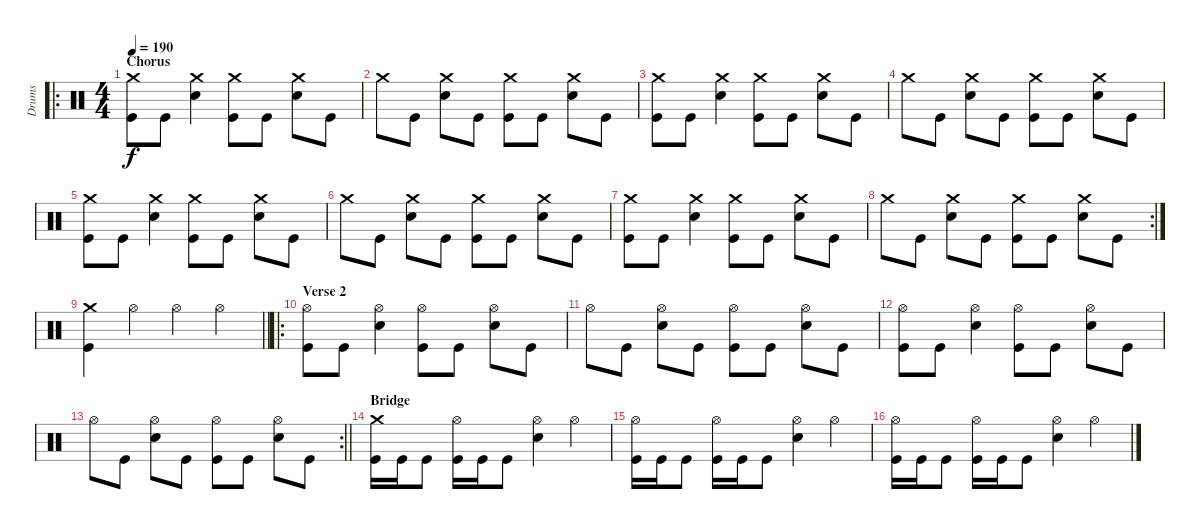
\track ("Drums" "Drums") {instrument percussion}
\staff {score}
\articulation defaults
\ro
\ts (4 4)
\section ("" "Chorus")
\tempo 190
\clef neutral
\ks c
("Crash medium (hit)" "Kick (hit)").8{dy f} "Kick (hit)".8 ("Crash medium (hit)" "Snare (hit) 2").4 ("Crash medium (hit)" "Kick (hit)").8 "Kick (hit)".8 ("Crash medium (hit)" "Snare (hit) 2").8 "Kick (hit)".8 |
"Crash medium (hit)".8 "Kick (hit)".8 ("Crash medium (hit)" "Snare (hit) 2").8 "Kick (hit)".8 ("Crash medium (hit)" "Kick (hit)").8 "Kick (hit)".8 ("Crash medium (hit)" "Snare (hit) 2").8 "Kick (hit)".8 |
("Crash medium (hit)" "Kick (hit)").8 "Kick (hit)".8 ("Crash medium (hit)" "Snare (hit) 2").4 ("Crash medium (hit)" "Kick (hit)").8 "Kick (hit)".8 ("Crash medium (hit)" "Snare (hit) 2").8 "Kick (hit)".8 |
"Crash medium (hit)".8 "Kick (hit)".8 ("Crash medium (hit)" "Snare (hit) 2").8 "Kick (hit)".8 ("Crash medium (hit)" "Kick (hit)").8 "Kick (hit)".8 ("Crash medium (hit)" "Snare (hit) 2").8 "Kick (hit)".8 |
("Crash medium (hit)" "Kick (hit)").8 "Kick (hit)".8 ("Crash medium (hit)" "Snare (hit) 2").4 ("Crash medium (hit)" "Kick (hit)").8 "Kick (hit)".8 ("Crash medium (hit)" "Snare (hit) 2").8 "Kick (hit)".8 |
"Crash medium (hit)".8 "Kick (hit)".8 ("Crash medium (hit)" "Snare (hit) 2").8 "Kick (hit)".8 ("Crash medium (hit)" "Kick (hit)").8 "Kick (hit)".8 ("Crash medium (hit)" "Snare (hit) 2").8 "Kick (hit)".8 |
("Crash medium (hit)" "Kick (hit)").8 "Kick (hit)".8 ("Crash medium (hit)" "Snare (hit) 2").4 ("Crash medium (hit)" "Kick (hit)").8 "Kick (hit)".8 ("Crash medium (hit)" "Snare (hit) 2").8 "Kick (hit)".8 |
\rc 2 "Crash medium (hit)".8 "Kick (hit)".8
("Crash medium (hit)" "Snare (hit) 2").8 "Kick (hit)".8 ("Crash medium (hit)" "Kick (hit)").8 "Kick (hit)".8 ("Crash medium (hit)" "Snare (hit) 2").8 "Kick (hit)".8 |
\barLineRight lightlight
("Crash medium (hit)" "Kick (hit)").4 "Hi-Hat (open)".4 "Hi-Hat (open)".4 "Hi-Hat (open)".4 |
\ro
\section ("" "Verse 2")
("Hi-Hat (open)" "Kick (hit)").8 "Kick (hit)".8 ("Hi-Hat (open)" "Snare (hit) 2").4 ("Hi-Hat (open)" "Kick (hit)").8 "Kick (hit)".8 ("Hi-Hat (open)" "Snare (hit) 2").8 "Kick (hit)".8 |
"Hi-Hat (open)".8 "Kick (hit)".8 ("Hi-Hat (open)" "Snare (hit) 2").8 "Kick (hit)".8 ("Hi-Hat (open)" "Kick (hit)").8 "Kick (hit)".8 ("Hi-Hat (open)" "Snare (hit) 2").8 "Kick (hit)".8 |
("Hi-Hat (open)" "Kick (hit)").8 "Kick (hit)".8 ("Hi-Hat (open)" "Snare (hit) 2").4 ("Hi-Hat (open)" "Kick (hit)").8 "Kick (hit)".8 ("Hi-Hat (open)" "Snare (hit) 2").8 "Kick (hit)".8 |
\rc 2
\barLineRight lightlight "Hi-Hat (open)".8 "Kick (hit)".8
("Hi-Hat (open)" "Snare (hit) 2").8 "Kick (hit)".8 ("Hi-Hat (open)" "Kick (hit)").8 "Kick (hit)".8 ("Hi-Hat (open)" "Snare (hit) 2").8 "Kick (hit)".8 |
\section ("" "Bridge")
("Crash medium (hit)" "Kick (hit)").16 "Kick (hit)".16 "Kick (hit)".8 ("Hi-Hat (open)" "Kick (hit)").16 "Kick (hit)".16 "Kick (hit)".8 ("Hi-Hat (open)" "Snare (hit) 2").4 "Hi-Hat (open)".4 |
("Hi-Hat (open)" "Kick (hit)").16 "Kick (hit)".16 "Kick (hit)".8 ("Hi-Hat (open)" "Kick (hit)").16 "Kick (hit)".16 "Kick (hit)".8 ("Hi-Hat (open)" "Snare (hit) 2").4 "Hi-Hat (open)".4 |
("Hi-Hat (open)" "Kick (hit)").16 "Kick (hit)".16 "Kick (hit)".8 ("Hi-Hat (open)" "Kick (hit)").16 "Kick (hit)".16 "Kick (hit)".8 ("Hi-Hat (open)" "Snare (hit) 2").4 "Hi-Hat (open)".4
